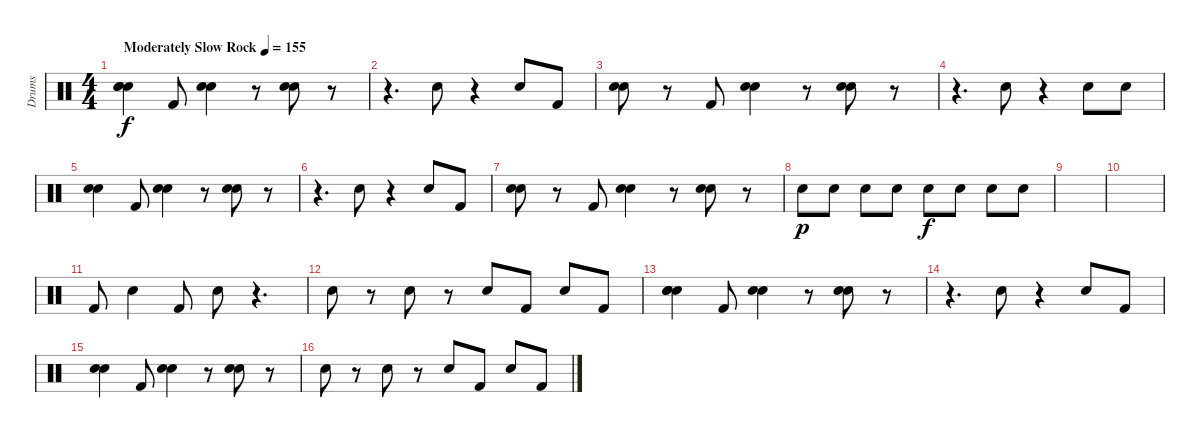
\track ("Drums" "Drums") {instrument percussion}
\staff {score}
\articulation defaults
\ts (4 4)
\tempo (155 "Moderately Slow Rock")
\clef neutral
\ks c
("Snare (hit) 2" "Hand Clap (hit)" "Snare (hit)").4{dy f} "Kick (hit) 2".8 ("Snare (hit) 2" "Hand Clap (hit)").4 r.8 ("Snare (hit) 2" "Hand Clap (hit)").8 r.8 |
r.4{d} "Hand Clap (hit)".8 r.4 "Hand Clap (hit)".8 "Kick (hit) 2".8 |
("Snare (hit) 2" "Hand Clap (hit)").8 r.8 "Kick (hit) 2".8 ("Snare (hit) 2" "Hand Clap (hit)").4 r.8 ("Snare (hit) 2" "Hand Clap (hit)").8 r.8 |
r.4{d} "Hand Clap (hit)".8 r.4 "Hand Clap (hit)".8 "Hand Clap (hit)".8 |
("Snare (hit) 2" "Hand Clap (hit)").4 "Kick (hit) 2".8 ("Snare (hit) 2" "Hand Clap (hit)").4 r.8 ("Snare (hit) 2" "Hand Clap (hit)").8 r.8 |
r.4{d} "Hand Clap (hit)".8 r.4 "Hand Clap (hit)".8 "Kick (hit) 2".8 |
("Snare (hit) 2" "Hand Clap (hit)").8 r.8 "Kick (hit) 2".8 ("Snare (hit) 2" "Hand Clap (hit)").4 r.8 ("Snare (hit) 2" "Hand Clap (hit)").8 r.8 |
"Snare (hit) 2".8{dy p} "Snare (hit) 2".8 "Snare (hit) 2".8 "Snare (hit) 2".8 "Snare (hit) 2".8{dy f} "Snare (hit) 2".8 "Snare (hit) 2".8 "Snare (hit) 2".8 |
|
|
"Kick (hit) 2".8 "Snare (hit) 2".4 "Kick (hit) 2".8 "Snare (hit) 2".8 r.4{d} |
"Snare (hit) 2".8 r.8 "Snare (hit) 2".8 r.8 "Snare (hit) 2".8 "Kick (hit) 2".8 "Snare (hit) 2".8 "Kick (hit) 2".8 |
("Snare (hit) 2" "Hand Clap (hit)" "Snare (hit)").4 "Kick (hit) 2".8 ("Snare (hit) 2" "Hand Clap (hit)").4 r.8 ("Snare (hit) 2" "Hand Clap (hit)").8 r.8 |
r.4{d} "Snare (hit) 2".8 r.4 "Snare (hit) 2".8 "Kick (hit) 2".8 |
("Snare (hit) 2" "Hand Clap (hit)").4 "Kick (hit) 2".8 ("Snare (hit) 2" "Hand Clap (hit)").4 r.8 ("Snare (hit) 2" "Hand Clap (hit)").8 r.8 |
"Snare (hit) 2".8 r.8 "Snare (hit) 2".8 r.8 "Snare (hit) 2".8 "Kick (hit) 2".8 "Snare (hit) 2".8 "Kick (hit) 2".8
